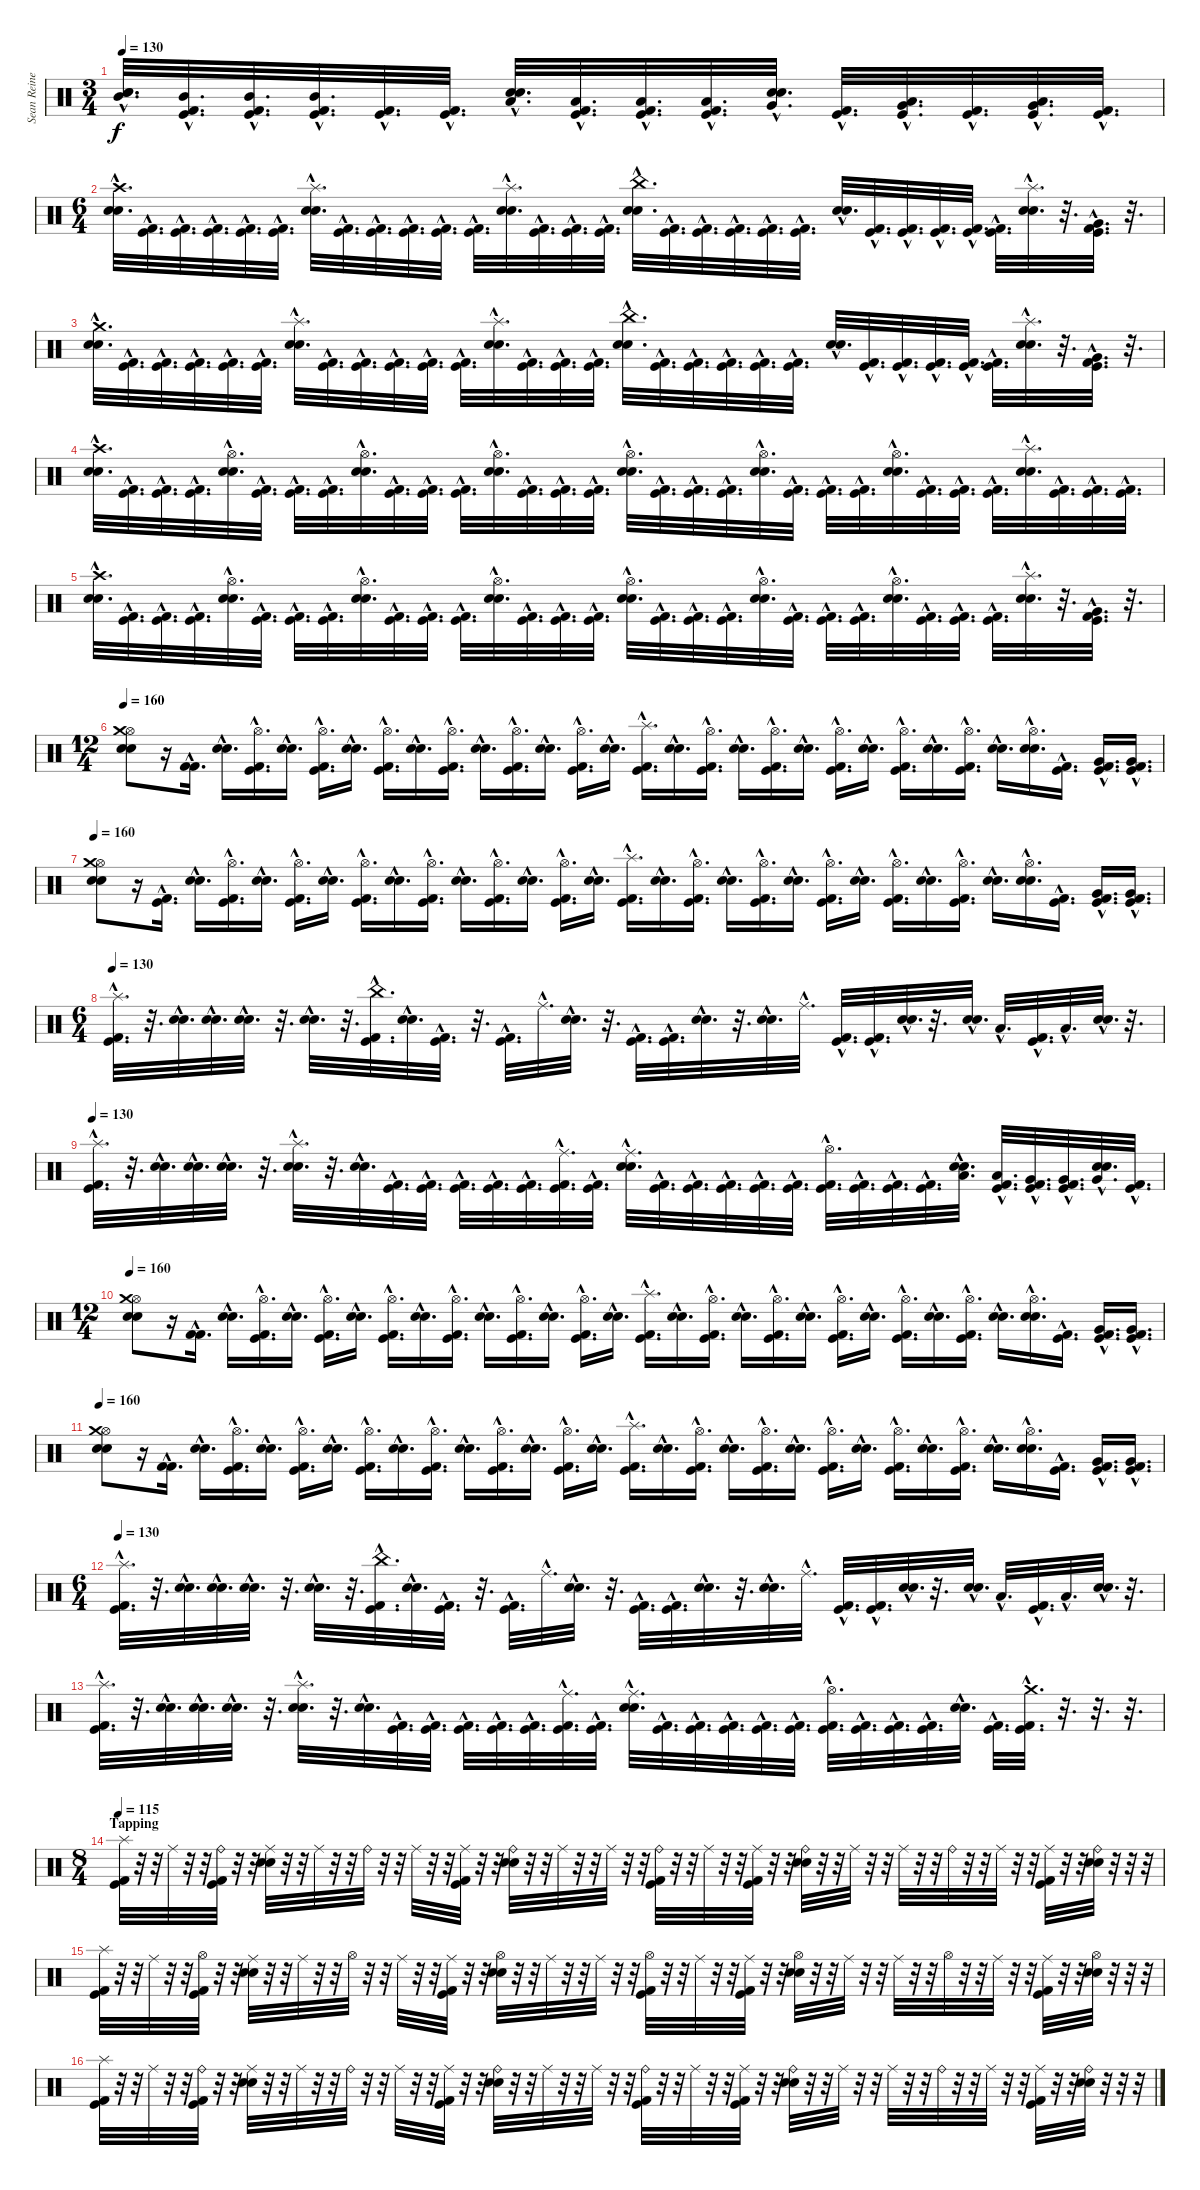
\track ("Sean Reinert" "Sean Reine") {instrument percussion}
\staff {score}
\articulation defaults
\ts (3 4)
\tempo 130
\clef neutral
\ks c
("Mid Tom (hit)"{hac} "Electric Snare (hit)"{hac} "Snare (hit) 2"{hac}).32{d dy f} ("Mid Tom (hit)"{hac} "Kick (hit) 2"{hac} "Kick (hit)"{hac}).32{d} ("Mid Tom (hit)"{hac} "Kick (hit)"{hac} "Kick (hit) 2"{hac}).32{d} ("Mid Tom (hit)"{hac} "Kick (hit) 2"{hac} "Kick (hit)"{hac}).32{d} ("Kick (hit) 2"{hac} "Kick (hit)"{hac}).32{d} ("Kick (hit) 2"{hac} "Kick (hit)"{hac}).32{d} ("Low Tom (hit)"{hac} "Electric Snare (hit)"{hac} "Snare (hit) 2"{hac}).32{d} ("Low Tom (hit)"{hac} "Kick (hit) 2"{hac} "Kick (hit)"{hac}).32{d} ("Low Tom (hit)"{hac} "Kick (hit) 2"{hac} "Kick (hit)"{hac}).32{d} ("Low Tom (hit)"{hac} "Kick (hit) 2"{hac} "Kick (hit)"{hac}).32{d} ("Very Low Tom (hit)"{hac} "Electric Snare (hit)"{hac} "Snare (hit) 2"{hac}).32{d} ("Kick (hit) 2"{hac} "Kick (hit)"{hac}).32{d} ("Low Floor Tom (hit)"{hac} "Very Low Tom (hit)"{hac} "Kick (hit)"{hac}).32{d} ("Kick (hit) 2"{hac} "Kick (hit)"{hac}).32{d} ("Low Floor Tom (hit)"{hac} "Very Low Tom (hit)"{hac} "Kick (hit)"{hac}).32{d} ("Kick (hit) 2"{hac} "Kick (hit)"{hac}).32{d} |
\ts (6 4)
("Crash high (hit)"{hac} "Snare (hit) 2"{hac} "Electric Snare (hit)"{hac}).32{d} ("Kick (hit) 2"{hac} "Kick (hit)"{hac}).32{d} ("Kick (hit) 2"{hac} "Kick (hit)"{hac}).32{d} ("Kick (hit) 2"{hac} "Kick (hit)"{hac}).32{d} ("Kick (hit) 2"{hac} "Kick (hit)"{hac}).32{d} ("Kick (hit) 2"{hac} "Kick (hit)"{hac}).32{d} ("Splash (hit)"{hac} "Snare (hit) 2"{hac} "Electric Snare (hit)"{hac}).32{d} ("Kick (hit) 2"{hac} "Kick (hit)"{hac}).32{d} ("Kick (hit) 2"{hac} "Kick (hit)"{hac}).32{d} ("Kick (hit) 2"{hac} "Kick (hit)"{hac}).32{d} ("Kick (hit) 2"{hac} "Kick (hit)"{hac}).32{d} ("Kick (hit) 2"{hac} "Kick (hit)"{hac}).32{d} ("Splash (hit)"{hac} "Snare (hit) 2"{hac} "Electric Snare (hit)"{hac}).32{d} ("Kick (hit) 2"{hac} "Kick (hit)"{hac}).32{d} ("Kick (hit) 2"{hac} "Kick (hit)"{hac}).32{d} ("Kick (hit) 2"{hac} "Kick (hit)"{hac}).32{d} ("China (hit)"{hac} "Snare (hit) 2"{hac} "Electric Snare (hit)"{hac}).32{d} ("Kick (hit) 2"{hac} "Kick (hit)"{hac}).32{d} ("Kick (hit) 2"{hac} "Kick (hit)"{hac}).32{d} ("Kick (hit) 2"{hac} "Kick (hit)"{hac}).32{d} ("Kick (hit) 2"{hac} "Kick (hit)"{hac}).32{d} ("Kick (hit) 2"{hac} "Kick (hit)"{hac}).32{d} ("Snare (hit) 2"{hac} "Electric Snare (hit)"{hac}).32{d} ("Kick (hit) 2"{hac} "Kick (hit)"{hac}).32{d} ("Kick (hit) 2"{hac} "Kick (hit)"{hac}).32{d} ("Kick (hit) 2"{hac} "Kick (hit)"{hac}).32{d} ("Kick (hit) 2"{hac} "Kick (hit)"{hac}).32{d} ("Kick (hit) 2"{hac} "Kick (hit)"{hac}).32{d} ("Splash (hit)"{hac} "Snare (hit) 2"{hac} "Electric Snare (hit)"{hac}).32{d} r.32{d} ("Very Low Tom (hit)"{hac} "Kick (hit) 2"{hac} "Kick (hit)"{hac}).32{d} r.32{d} |
("Crash medium (hit)"{hac} "Snare (hit) 2"{hac} "Electric Snare (hit)"{hac}).32{d} ("Kick (hit) 2"{hac} "Kick (hit)"{hac}).32{d} ("Kick (hit) 2"{hac} "Kick (hit)"{hac}).32{d} ("Kick (hit) 2"{hac} "Kick (hit)"{hac}).32{d} ("Kick (hit) 2"{hac} "Kick (hit)"{hac}).32{d} ("Kick (hit) 2"{hac} "Kick (hit)"{hac}).32{d} ("Splash (hit)"{hac} "Snare (hit) 2"{hac} "Electric Snare (hit)"{hac}).32{d} ("Kick (hit) 2"{hac} "Kick (hit)"{hac}).32{d} ("Kick (hit) 2"{hac} "Kick (hit)"{hac}).32{d} ("Kick (hit) 2"{hac} "Kick (hit)"{hac}).32{d} ("Kick (hit) 2"{hac} "Kick (hit)"{hac}).32{d} ("Kick (hit) 2"{hac} "Kick (hit)"{hac}).32{d} ("Splash (hit)"{hac} "Snare (hit) 2"{hac} "Electric Snare (hit)"{hac}).32{d} ("Kick (hit) 2"{hac} "Kick (hit)"{hac}).32{d} ("Kick (hit) 2"{hac} "Kick (hit)"{hac}).32{d} ("Kick (hit) 2"{hac} "Kick (hit)"{hac}).32{d} ("China (hit)"{hac} "Snare (hit) 2"{hac} "Electric Snare (hit)"{hac}).32{d} ("Kick (hit) 2"{hac} "Kick (hit)"{hac}).32{d} ("Kick (hit) 2"{hac} "Kick (hit)"{hac}).32{d} ("Kick (hit) 2"{hac} "Kick (hit)"{hac}).32{d} ("Kick (hit) 2"{hac} "Kick (hit)"{hac}).32{d} ("Kick (hit) 2"{hac} "Kick (hit)"{hac}).32{d} ("Snare (hit) 2"{hac} "Electric Snare (hit)"{hac}).32{d} ("Kick (hit) 2"{hac} "Kick (hit)"{hac}).32{d} ("Kick (hit) 2"{hac} "Kick (hit)"{hac}).32{d} ("Kick (hit) 2"{hac} "Kick (hit)"{hac}).32{d} ("Kick (hit) 2"{hac} "Kick (hit)"{hac}).32{d} ("Kick (hit) 2"{hac} "Kick (hit)"{hac}).32{d} ("Splash (hit)"{hac} "Snare (hit) 2"{hac} "Electric Snare (hit)"{hac}).32{d} r.32{d} ("Very Low Tom (hit)"{hac} "Kick (hit) 2"{hac} "Kick (hit)"{hac}).32{d} r.32{d} |
("Crash high (hit)"{hac} "Snare (hit) 2"{hac} "Electric Snare (hit)"{hac}).32{d} ("Kick (hit) 2"{hac} "Kick (hit)"{hac}).32{d} ("Kick (hit) 2"{hac} "Kick (hit)"{hac}).32{d} ("Kick (hit) 2"{hac} "Kick (hit)"{hac}).32{d} ("Hi-Hat (open)"{hac} "Snare (hit) 2"{hac} "Electric Snare (hit)"{hac}).32{d} ("Kick (hit) 2"{hac} "Kick (hit)"{hac}).32{d} ("Kick (hit) 2"{hac} "Kick (hit)"{hac}).32{d} ("Kick (hit) 2"{hac} "Kick (hit)"{hac}).32{d} ("Hi-Hat (open)"{hac} "Snare (hit) 2"{hac} "Electric Snare (hit)"{hac}).32{d} ("Kick (hit) 2"{hac} "Kick (hit)"{hac}).32{d} ("Kick (hit) 2"{hac} "Kick (hit)"{hac}).32{d} ("Kick (hit) 2"{hac} "Kick (hit)"{hac}).32{d} ("Hi-Hat (open)"{hac} "Snare (hit) 2"{hac} "Electric Snare (hit)"{hac}).32{d} ("Kick (hit) 2"{hac} "Kick (hit)"{hac}).32{d} ("Kick (hit) 2"{hac} "Kick (hit)"{hac}).32{d} ("Kick (hit) 2"{hac} "Kick (hit)"{hac}).32{d} ("Hi-Hat (open)"{hac} "Snare (hit) 2"{hac} "Electric Snare (hit)"{hac}).32{d} ("Kick (hit) 2"{hac} "Kick (hit)"{hac}).32{d} ("Kick (hit) 2"{hac} "Kick (hit)"{hac}).32{d} ("Kick (hit) 2"{hac} "Kick (hit)"{hac}).32{d} ("Hi-Hat (open)"{hac} "Snare (hit) 2"{hac} "Electric Snare (hit)"{hac}).32{d} ("Kick (hit) 2"{hac} "Kick (hit)"{hac}).32{d} ("Kick (hit) 2"{hac} "Kick (hit)"{hac}).32{d} ("Kick (hit) 2"{hac} "Kick (hit)"{hac}).32{d} ("Hi-Hat (open)"{hac} "Snare (hit) 2"{hac} "Electric Snare (hit)"{hac}).32{d} ("Kick (hit) 2"{hac} "Kick (hit)"{hac}).32{d} ("Kick (hit) 2"{hac} "Kick (hit)"{hac}).32{d} ("Kick (hit) 2"{hac} "Kick (hit)"{hac}).32{d} ("Splash (hit)"{hac} "Snare (hit) 2"{hac} "Electric Snare (hit)"{hac}).32{d} ("Kick (hit) 2"{hac} "Kick (hit)"{hac}).32{d} ("Kick (hit) 2"{hac} "Kick (hit)"{hac}).32{d} ("Kick (hit) 2"{hac} "Kick (hit)"{hac}).32{d} |
("Crash high (hit)"{hac} "Snare (hit) 2"{hac} "Electric Snare (hit)"{hac}).32{d} ("Kick (hit) 2"{hac} "Kick (hit)"{hac}).32{d} ("Kick (hit) 2"{hac} "Kick (hit)"{hac}).32{d} ("Kick (hit) 2"{hac} "Kick (hit)"{hac}).32{d} ("Hi-Hat (open)"{hac} "Snare (hit) 2"{hac} "Electric Snare (hit)"{hac}).32{d} ("Kick (hit) 2"{hac} "Kick (hit)"{hac}).32{d} ("Kick (hit) 2"{hac} "Kick (hit)"{hac}).32{d} ("Kick (hit) 2"{hac} "Kick (hit)"{hac}).32{d} ("Hi-Hat (open)"{hac} "Snare (hit) 2"{hac} "Electric Snare (hit)"{hac}).32{d} ("Kick (hit) 2"{hac} "Kick (hit)"{hac}).32{d} ("Kick (hit) 2"{hac} "Kick (hit)"{hac}).32{d} ("Kick (hit) 2"{hac} "Kick (hit)"{hac}).32{d} ("Hi-Hat (open)"{hac} "Snare (hit) 2"{hac} "Electric Snare (hit)"{hac}).32{d} ("Kick (hit) 2"{hac} "Kick (hit)"{hac}).32{d} ("Kick (hit) 2"{hac} "Kick (hit)"{hac}).32{d} ("Kick (hit) 2"{hac} "Kick (hit)"{hac}).32{d} ("Hi-Hat (open)"{hac} "Snare (hit) 2"{hac} "Electric Snare (hit)"{hac}).32{d} ("Kick (hit) 2"{hac} "Kick (hit)"{hac}).32{d} ("Kick (hit) 2"{hac} "Kick (hit)"{hac}).32{d} ("Kick (hit) 2"{hac} "Kick (hit)"{hac}).32{d} ("Hi-Hat (open)"{hac} "Snare (hit) 2"{hac} "Electric Snare (hit)"{hac}).32{d} ("Kick (hit) 2"{hac} "Kick (hit)"{hac}).32{d} ("Kick (hit) 2"{hac} "Kick (hit)"{hac}).32{d} ("Kick (hit) 2"{hac} "Kick (hit)"{hac}).32{d} ("Hi-Hat (open)"{hac} "Snare (hit) 2"{hac} "Electric Snare (hit)"{hac}).32{d} ("Kick (hit) 2"{hac} "Kick (hit)"{hac}).32{d} ("Kick (hit) 2"{hac} "Kick (hit)"{hac}).32{d} ("Kick (hit) 2"{hac} "Kick (hit)"{hac}).32{d} ("Splash (hit)"{hac} "Snare (hit) 2"{hac} "Electric Snare (hit)"{hac}).32{d} r.32{d} ("Very Low Tom (hit)"{hac} "Kick (hit) 2"{hac} "Kick (hit)"{hac}).32{d} r.32{d} |
\ts (12 4)
\tempo 160
("Hi-Hat (open)" "Crash medium (hit)" "Snare (hit) 2" "Electric Snare (hit)").8 r.16 ("Kick (hit) 2"{hac} "Kick (hit) 2"{hac}).16{d} ("Snare (hit) 2"{hac} "Electric Snare (hit)"{hac}).16{d} ("Hi-Hat (open)"{hac} "Kick (hit) 2"{hac} "Kick (hit)"{hac}).16{d} ("Snare (hit) 2"{hac} "Electric Snare (hit)"{hac}).16{d} ("Hi-Hat (open)"{hac} "Kick (hit) 2"{hac} "Kick (hit)"{hac}).16{d} ("Snare (hit) 2"{hac} "Electric Snare (hit)"{hac}).16{d} ("Hi-Hat (open)"{hac} "Kick (hit) 2"{hac} "Kick (hit)"{hac}).16{d} ("Snare (hit) 2"{hac} "Electric Snare (hit)"{hac}).16{d} ("Hi-Hat (open)"{hac} "Kick (hit) 2"{hac} "Kick (hit)"{hac}).16{d} ("Snare (hit) 2"{hac} "Electric Snare (hit)"{hac}).16{d} ("Hi-Hat (open)"{hac} "Kick (hit) 2"{hac} "Kick (hit)"{hac}).16{d} ("Snare (hit) 2"{hac} "Electric Snare (hit)"{hac}).16{d} ("Hi-Hat (open)"{hac} "Kick (hit) 2"{hac} "Kick (hit)"{hac}).16{d} ("Snare (hit) 2"{hac} "Electric Snare (hit)"{hac}).16{d} ("Splash (hit)"{hac} "Kick (hit) 2"{hac} "Kick (hit)"{hac}).16{d} ("Snare (hit) 2"{hac} "Electric Snare (hit)"{hac}).16{d} ("Hi-Hat (open)"{hac} "Kick (hit) 2"{hac} "Kick (hit)"{hac}).16{d} ("Snare (hit) 2"{hac} "Electric Snare (hit)"{hac}).16{d} ("Hi-Hat (open)"{hac} "Kick (hit) 2"{hac} "Kick (hit)"{hac}).16{d} ("Snare (hit) 2"{hac} "Electric Snare (hit)"{hac}).16{d} ("Hi-Hat (open)"{hac} "Kick (hit) 2"{hac} "Kick (hit)"{hac}).16{d} ("Snare (hit) 2"{hac} "Electric Snare (hit)"{hac}).16{d} ("Hi-Hat (open)"{hac} "Kick (hit) 2"{hac} "Kick (hit)"{hac}).16{d} ("Snare (hit) 2"{hac} "Electric Snare (hit)"{hac}).16{d} ("Hi-Hat (open)"{hac} "Kick (hit) 2"{hac} "Kick (hit)"{hac}).16{d} ("Snare (hit) 2"{hac} "Electric Snare (hit)"{hac}).16{d} ("Hi-Hat (open)"{hac} "Snare (hit) 2"{hac} "Electric Snare (hit)"{hac}).16{d} ("Kick (hit) 2"{hac} "Kick (hit)"{hac}).16{d} ("Very Low Tom (hit)"{hac} "Kick (hit) 2"{hac} "Kick (hit)"{hac}).16{d} ("Very Low Tom (hit)"{hac} "Kick (hit) 2"{hac} "Kick (hit)"{hac}).16{d} |
\tempo 160
("Hi-Hat (open)" "Crash medium (hit)" "Snare (hit) 2" "Electric Snare (hit)").8 r.16 ("Kick (hit) 2"{hac} "Kick (hit)"{hac}).16{d} ("Snare (hit) 2"{hac} "Electric Snare (hit)"{hac}).16{d} ("Hi-Hat (open)"{hac} "Kick (hit) 2"{hac} "Kick (hit)"{hac}).16{d} ("Snare (hit) 2"{hac} "Electric Snare (hit)"{hac}).16{d} ("Hi-Hat (open)"{hac} "Kick (hit) 2"{hac} "Kick (hit)"{hac}).16{d} ("Snare (hit) 2"{hac} "Electric Snare (hit)"{hac}).16{d} ("Hi-Hat (open)"{hac} "Kick (hit) 2"{hac} "Kick (hit)"{hac}).16{d} ("Snare (hit) 2"{hac} "Electric Snare (hit)"{hac}).16{d} ("Hi-Hat (open)"{hac} "Kick (hit) 2"{hac} "Kick (hit)"{hac}).16{d} ("Snare (hit) 2"{hac} "Electric Snare (hit)"{hac}).16{d} ("Hi-Hat (open)"{hac} "Kick (hit) 2"{hac} "Kick (hit)"{hac}).16{d} ("Snare (hit) 2"{hac} "Electric Snare (hit)"{hac}).16{d} ("Hi-Hat (open)"{hac} "Kick (hit) 2"{hac} "Kick (hit)"{hac}).16{d} ("Snare (hit) 2"{hac} "Electric Snare (hit)"{hac}).16{d} ("Splash (hit)"{hac} "Kick (hit) 2"{hac} "Kick (hit)"{hac}).16{d} ("Snare (hit) 2"{hac} "Electric Snare (hit)"{hac}).16{d} ("Hi-Hat (open)"{hac} "Kick (hit) 2"{hac} "Kick (hit)"{hac}).16{d} ("Snare (hit) 2"{hac} "Electric Snare (hit)"{hac}).16{d} ("Hi-Hat (open)"{hac} "Kick (hit) 2"{hac} "Kick (hit)"{hac}).16{d} ("Snare (hit) 2"{hac} "Electric Snare (hit)"{hac}).16{d} ("Hi-Hat (open)"{hac} "Kick (hit) 2"{hac} "Kick (hit)"{hac}).16{d} ("Snare (hit) 2"{hac} "Electric Snare (hit)"{hac}).16{d} ("Hi-Hat (open)"{hac} "Kick (hit) 2"{hac} "Kick (hit)"{hac}).16{d} ("Snare (hit) 2"{hac} "Electric Snare (hit)"{hac}).16{d} ("Hi-Hat (open)"{hac} "Kick (hit) 2"{hac} "Kick (hit)"{hac}).16{d} ("Snare (hit) 2"{hac} "Electric Snare (hit)"{hac}).16{d} ("Hi-Hat (open)"{hac} "Snare (hit) 2"{hac} "Electric Snare (hit)"{hac}).16{d} ("Kick (hit) 2"{hac} "Kick (hit)"{hac}).16{d} ("Very Low Tom (hit)"{hac} "Kick (hit) 2"{hac} "Kick (hit)"{hac}).16{d} ("Very Low Tom (hit)"{hac} "Kick (hit) 2"{hac} "Kick (hit)"{hac}).16{d} |
\ts (6 4)
\tempo 130
("Splash (hit)"{hac} "Kick (hit) 2"{hac} "Kick (hit)"{hac}).32{d} r.32{d} ("Snare (hit) 2"{hac} "Electric Snare (hit)"{hac}).32{d} ("Snare (hit) 2"{hac} "Electric Snare (hit)"{hac}).32{d} ("Snare (hit) 2"{hac} "Electric Snare (hit)"{hac}).32{d} r.32{d} ("Snare (hit) 2"{hac} "Electric Snare (hit)"{hac}).32{d} r.32{d} ("China (hit)"{hac} "Kick (hit) 2"{hac} "Kick (hit)"{hac}).32{d} ("Snare (hit) 2"{hac} "Electric Snare (hit)"{hac}).32{d} ("Kick (hit) 2"{hac} "Kick (hit)"{hac}).32{d} r.32{d} ("Kick (hit) 2"{hac} "Kick (hit)"{hac}).32{d} "Ride (middle)"{hac}.32{d} ("Snare (hit) 2"{hac} "Electric Snare (hit)"{hac}).32{d} r.32{d} ("Kick (hit) 2"{hac} "Kick (hit)"{hac}).32{d} ("Kick (hit) 2"{hac} "Kick (hit)"{hac}).32{d} ("Snare (hit) 2"{hac} "Electric Snare (hit)"{hac}).32{d} r.32{d} ("Snare (hit) 2"{hac} "Electric Snare (hit)"{hac}).32{d} "Ride (middle)"{hac}.32{d} ("Kick (hit) 2"{hac} "Kick (hit)"{hac}).32{d} ("Kick (hit) 2"{hac} "Kick (hit)"{hac}).32{d} ("Snare (hit) 2"{hac} "Electric Snare (hit)"{hac}).32{d} r.32{d} ("Snare (hit) 2"{hac} "Electric Snare (hit)"{hac}).32{d} "Low Tom (hit)"{hac}.32{d} ("Kick (hit) 2"{hac} "Kick (hit)"{hac}).32{d} "Low Tom (hit)"{hac}.32{d} ("Snare (hit) 2"{hac} "Electric Snare (hit)"{hac}).32{d} r.32{d} |
\tempo 130
("Splash (hit)"{hac} "Kick (hit) 2"{hac} "Kick (hit)"{hac}).32{d} r.32{d} ("Snare (hit) 2"{hac} "Electric Snare (hit)"{hac}).32{d} ("Snare (hit) 2"{hac} "Electric Snare (hit)"{hac}).32{d} ("Snare (hit) 2"{hac} "Electric Snare (hit)"{hac}).32{d} r.32{d} ("Splash (hit)"{hac} "Snare (hit) 2"{hac} "Electric Snare (hit)"{hac}).32{d} r.32{d} ("Electric Snare (hit)"{hac} "Snare (hit) 2"{hac}).32{d} ("Kick (hit) 2"{hac} "Kick (hit)"{hac}).32{d} ("Kick (hit) 2"{hac} "Kick (hit)"{hac}).32{d} ("Kick (hit) 2"{hac} "Kick (hit)"{hac}).32{d} ("Kick (hit) 2"{hac} "Kick (hit)"{hac}).32{d} ("Kick (hit) 2"{hac} "Kick (hit)"{hac}).32{d} ("Ride (middle)"{hac} "Kick (hit) 2"{hac} "Kick (hit)"{hac}).32{d} ("Kick (hit) 2"{hac} "Kick (hit)"{hac}).32{d} ("Ride (middle)"{hac} "Electric Snare (hit)"{hac} "Snare (hit) 2"{hac}).32{d} ("Kick (hit) 2"{hac} "Kick (hit)"{hac}).32{d} ("Kick (hit) 2"{hac} "Kick (hit)"{hac}).32{d} ("Kick (hit) 2"{hac} "Kick (hit)"{hac}).32{d} ("Kick (hit) 2"{hac} "Kick (hit)"{hac}).32{d} ("Kick (hit) 2"{hac} "Kick (hit)"{hac}).32{d} ("Hi-Hat (open)"{hac} "Kick (hit) 2"{hac} "Kick (hit)"{hac}).32{d} ("Kick (hit) 2"{hac} "Kick (hit)"{hac}).32{d} ("Kick (hit) 2"{hac} "Kick (hit)"{hac}).32{d} ("Kick (hit) 2"{hac} "Kick (hit)"{hac}).32{d} ("Low Tom (hit)"{hac} "Snare (hit) 2"{hac} "Electric Snare (hit)"{hac}).32{d} ("Low Tom (hit)"{hac} "Kick (hit) 2"{hac} "Kick (hit)"{hac}).32{d} ("Very Low Tom (hit)"{hac} "Kick (hit) 2"{hac} "Kick (hit)"{hac}).32{d} ("Very Low Tom (hit)"{hac} "Kick (hit) 2"{hac} "Kick (hit)"{hac}).32{d} ("Very Low Tom (hit)"{hac} "Snare (hit) 2"{hac} "Electric Snare (hit)"{hac}).32{d} ("Kick (hit) 2"{hac} "Kick (hit)"{hac}).32{d} |
\ts (12 4)
\tempo 160
("Hi-Hat (open)" "Crash medium (hit)" "Snare (hit) 2" "Electric Snare (hit)").8 r.16 ("Kick (hit) 2"{hac} "Kick (hit) 2"{hac}).16{d} ("Snare (hit) 2"{hac} "Electric Snare (hit)"{hac}).16{d} ("Hi-Hat (open)"{hac} "Kick (hit) 2"{hac} "Kick (hit)"{hac}).16{d} ("Snare (hit) 2"{hac} "Electric Snare (hit)"{hac}).16{d} ("Hi-Hat (open)"{hac} "Kick (hit) 2"{hac} "Kick (hit)"{hac}).16{d} ("Snare (hit) 2"{hac} "Electric Snare (hit)"{hac}).16{d} ("Hi-Hat (open)"{hac} "Kick (hit) 2"{hac} "Kick (hit)"{hac}).16{d} ("Snare (hit) 2"{hac} "Electric Snare (hit)"{hac}).16{d} ("Hi-Hat (open)"{hac} "Kick (hit) 2"{hac} "Kick (hit)"{hac}).16{d} ("Snare (hit) 2"{hac} "Electric Snare (hit)"{hac}).16{d} ("Hi-Hat (open)"{hac} "Kick (hit) 2"{hac} "Kick (hit)"{hac}).16{d} ("Snare (hit) 2"{hac} "Electric Snare (hit)"{hac}).16{d} ("Hi-Hat (open)"{hac} "Kick (hit) 2"{hac} "Kick (hit)"{hac}).16{d} ("Snare (hit) 2"{hac} "Electric Snare (hit)"{hac}).16{d} ("Splash (hit)"{hac} "Kick (hit) 2"{hac} "Kick (hit)"{hac}).16{d} ("Snare (hit) 2"{hac} "Electric Snare (hit)"{hac}).16{d} ("Hi-Hat (open)"{hac} "Kick (hit) 2"{hac} "Kick (hit)"{hac}).16{d} ("Snare (hit) 2"{hac} "Electric Snare (hit)"{hac}).16{d} ("Hi-Hat (open)"{hac} "Kick (hit) 2"{hac} "Kick (hit)"{hac}).16{d} ("Snare (hit) 2"{hac} "Electric Snare (hit)"{hac}).16{d} ("Hi-Hat (open)"{hac} "Kick (hit) 2"{hac} "Kick (hit)"{hac}).16{d} ("Snare (hit) 2"{hac} "Electric Snare (hit)"{hac}).16{d} ("Hi-Hat (open)"{hac} "Kick (hit) 2"{hac} "Kick (hit)"{hac}).16{d} ("Snare (hit) 2"{hac} "Electric Snare (hit)"{hac}).16{d} ("Hi-Hat (open)"{hac} "Kick (hit) 2"{hac} "Kick (hit)"{hac}).16{d} ("Snare (hit) 2"{hac} "Electric Snare (hit)"{hac}).16{d} ("Hi-Hat (open)"{hac} "Snare (hit) 2"{hac} "Electric Snare (hit)"{hac}).16{d} ("Kick (hit) 2"{hac} "Kick (hit)"{hac}).16{d} ("Very Low Tom (hit)"{hac} "Kick (hit) 2"{hac} "Kick (hit)"{hac}).16{d} ("Very Low Tom (hit)"{hac} "Kick (hit) 2"{hac} "Kick (hit)"{hac}).16{d} |
\tempo 160
("Hi-Hat (open)" "Crash medium (hit)" "Snare (hit) 2" "Electric Snare (hit)").8 r.16 ("Kick (hit) 2"{hac} "Kick (hit) 2"{hac}).16{d} ("Snare (hit) 2"{hac} "Electric Snare (hit)"{hac}).16{d} ("Hi-Hat (open)"{hac} "Kick (hit) 2"{hac} "Kick (hit)"{hac}).16{d} ("Snare (hit) 2"{hac} "Electric Snare (hit)"{hac}).16{d} ("Hi-Hat (open)"{hac} "Kick (hit) 2"{hac} "Kick (hit)"{hac}).16{d} ("Snare (hit) 2"{hac} "Electric Snare (hit)"{hac}).16{d} ("Hi-Hat (open)"{hac} "Kick (hit) 2"{hac} "Kick (hit)"{hac}).16{d} ("Snare (hit) 2"{hac} "Electric Snare (hit)"{hac}).16{d} ("Hi-Hat (open)"{hac} "Kick (hit) 2"{hac} "Kick (hit)"{hac}).16{d} ("Snare (hit) 2"{hac} "Electric Snare (hit)"{hac}).16{d} ("Hi-Hat (open)"{hac} "Kick (hit) 2"{hac} "Kick (hit)"{hac}).16{d} ("Snare (hit) 2"{hac} "Electric Snare (hit)"{hac}).16{d} ("Hi-Hat (open)"{hac} "Kick (hit) 2"{hac} "Kick (hit)"{hac}).16{d} ("Snare (hit) 2"{hac} "Electric Snare (hit)"{hac}).16{d} ("Splash (hit)"{hac} "Kick (hit) 2"{hac} "Kick (hit)"{hac}).16{d} ("Snare (hit) 2"{hac} "Electric Snare (hit)"{hac}).16{d} ("Hi-Hat (open)"{hac} "Kick (hit) 2"{hac} "Kick (hit)"{hac}).16{d} ("Snare (hit) 2"{hac} "Electric Snare (hit)"{hac}).16{d} ("Hi-Hat (open)"{hac} "Kick (hit) 2"{hac} "Kick (hit)"{hac}).16{d} ("Snare (hit) 2"{hac} "Electric Snare (hit)"{hac}).16{d} ("Hi-Hat (open)"{hac} "Kick (hit) 2"{hac} "Kick (hit)"{hac}).16{d} ("Snare (hit) 2"{hac} "Electric Snare (hit)"{hac}).16{d} ("Hi-Hat (open)"{hac} "Kick (hit) 2"{hac} "Kick (hit)"{hac}).16{d} ("Snare (hit) 2"{hac} "Electric Snare (hit)"{hac}).16{d} ("Hi-Hat (open)"{hac} "Kick (hit) 2"{hac} "Kick (hit)"{hac}).16{d} ("Snare (hit) 2"{hac} "Electric Snare (hit)"{hac}).16{d} ("Hi-Hat (open)"{hac} "Snare (hit) 2"{hac} "Electric Snare (hit)"{hac}).16{d} ("Kick (hit) 2"{hac} "Kick (hit)"{hac}).16{d} ("Very Low Tom (hit)"{hac} "Kick (hit) 2"{hac} "Kick (hit)"{hac}).16{d} ("Very Low Tom (hit)"{hac} "Kick (hit) 2"{hac} "Kick (hit)"{hac}).16{d} |
\ts (6 4)
\tempo 130
("Splash (hit)"{hac} "Kick (hit) 2"{hac} "Kick (hit)"{hac}).32{d} r.32{d} ("Snare (hit) 2"{hac} "Electric Snare (hit)"{hac}).32{d} ("Snare (hit) 2"{hac} "Electric Snare (hit)"{hac}).32{d} ("Snare (hit) 2"{hac} "Electric Snare (hit)"{hac}).32{d} r.32{d} ("Snare (hit) 2"{hac} "Electric Snare (hit)"{hac}).32{d} r.32{d} ("China (hit)"{hac} "Kick (hit) 2"{hac} "Kick (hit)"{hac}).32{d} ("Snare (hit) 2"{hac} "Electric Snare (hit)"{hac}).32{d} ("Kick (hit) 2"{hac} "Kick (hit)"{hac}).32{d} r.32{d} ("Kick (hit) 2"{hac} "Kick (hit)"{hac}).32{d} "Ride (middle)"{hac}.32{d} ("Snare (hit) 2"{hac} "Electric Snare (hit)"{hac}).32{d} r.32{d} ("Kick (hit) 2"{hac} "Kick (hit)"{hac}).32{d} ("Kick (hit) 2"{hac} "Kick (hit)"{hac}).32{d} ("Snare (hit) 2"{hac} "Electric Snare (hit)"{hac}).32{d} r.32{d} ("Snare (hit) 2"{hac} "Electric Snare (hit)"{hac}).32{d} "Ride (middle)"{hac}.32{d} ("Kick (hit) 2"{hac} "Kick (hit)"{hac}).32{d} ("Kick (hit) 2"{hac} "Kick (hit)"{hac}).32{d} ("Snare (hit) 2"{hac} "Electric Snare (hit)"{hac}).32{d} r.32{d} ("Snare (hit) 2"{hac} "Electric Snare (hit)"{hac}).32{d} "Low Tom (hit)"{hac}.32{d} ("Kick (hit) 2"{hac} "Kick (hit)"{hac}).32{d} "Low Tom (hit)"{hac}.32{d} ("Snare (hit) 2"{hac} "Electric Snare (hit)"{hac}).32{d} r.32{d} |
("Splash (hit)"{hac} "Kick (hit) 2"{hac} "Kick (hit)"{hac}).32{d} r.32{d} ("Snare (hit) 2"{hac} "Electric Snare (hit)"{hac}).32{d} ("Snare (hit) 2"{hac} "Electric Snare (hit)"{hac}).32{d} ("Snare (hit) 2"{hac} "Electric Snare (hit)"{hac}).32{d} r.32{d} ("Splash (hit)"{hac} "Snare (hit) 2"{hac} "Electric Snare (hit)"{hac}).32{d} r.32{d} ("Electric Snare (hit)"{hac} "Snare (hit) 2"{hac}).32{d} ("Kick (hit) 2"{hac} "Kick (hit)"{hac}).32{d} ("Kick (hit) 2"{hac} "Kick (hit)"{hac}).32{d} ("Kick (hit) 2"{hac} "Kick (hit)"{hac}).32{d} ("Kick (hit) 2"{hac} "Kick (hit)"{hac}).32{d} ("Kick (hit) 2"{hac} "Kick (hit)"{hac}).32{d} ("Ride (middle)"{hac} "Kick (hit) 2"{hac} "Kick (hit)"{hac}).32{d} ("Kick (hit) 2"{hac} "Kick (hit)"{hac}).32{d} ("Ride (middle)"{hac} "Electric Snare (hit)"{hac} "Snare (hit) 2"{hac}).32{d} ("Kick (hit) 2"{hac} "Kick (hit)"{hac}).32{d} ("Kick (hit) 2"{hac} "Kick (hit)"{hac}).32{d} ("Kick (hit) 2"{hac} "Kick (hit)"{hac}).32{d} ("Kick (hit) 2"{hac} "Kick (hit)"{hac}).32{d} ("Kick (hit) 2"{hac} "Kick (hit)"{hac}).32{d} ("Hi-Hat (open)"{hac} "Kick (hit) 2"{hac} "Kick (hit)"{hac}).32{d} ("Kick (hit) 2"{hac} "Kick (hit)"{hac}).32{d} ("Kick (hit) 2"{hac} "Kick (hit)"{hac}).32{d} ("Kick (hit) 2"{hac} "Kick (hit)"{hac}).32{d} ("Snare (hit) 2"{hac} "Electric Snare (hit)"{hac}).32{d} ("Kick (hit)"{hac} "Kick (hit) 2"{hac}).32{d} ("Crash medium (hit)"{hac} "Kick (hit)"{hac} "Kick (hit) 2"{hac}).32{d} r.32{d} r.32{d} r.32{d} |
\ts (8 4)
\section ("" "Tapping")
\tempo 115
("Splash (hit)" "Kick (hit) 2" "Kick (hit)").32 r.32 r.32 "Ride (middle)".32 r.32 r.32 ("Ride (bell)" "Kick (hit) 2" "Kick (hit)").32 r.32 r.32 ("Ride (middle)" "Electric Snare (hit)" "Snare (hit) 2").32 r.32 r.32 "Ride (middle)".32 r.32 r.32 "Ride (bell)".32 r.32 r.32 "Ride (middle)".32 r.32 r.32 ("Ride (middle)" "Kick (hit) 2" "Kick (hit)").32 r.32 r.32 ("Ride (bell)" "Electric Snare (hit)" "Snare (hit) 2").32 r.32 r.32 "Ride (middle)".32 r.32 r.32 "Ride (middle)".32 r.32 r.32 ("Ride (bell)" "Kick (hit) 2" "Kick (hit)").32 r.32 r.32 "Ride (middle)".32 r.32 r.32 ("Ride (middle)" "Kick (hit) 2" "Kick (hit)").32 r.32 r.32 ("Ride (bell)" "Electric Snare (hit)" "Snare (hit) 2").32 r.32 r.32 "Ride (middle)".32 r.32 r.32 "Ride (middle)".32 r.32 r.32 "Ride (bell)".32 r.32 r.32 "Ride (middle)".32 r.32 r.32 ("Ride (middle)" "Kick (hit) 2" "Kick (hit)").32 r.32 r.32 ("Ride (bell)" "Electric Snare (hit)" "Snare (hit) 2").32 r.32 r.32 r.32 |
("Splash (hit)" "Kick (hit) 2" "Kick (hit)").32 r.32 r.32 "Ride (middle)".32 r.32 r.32 ("Hi-Hat (open)" "Kick (hit) 2" "Kick (hit)").32 r.32 r.32 ("Ride (middle)" "Electric Snare (hit)" "Snare (hit) 2").32 r.32 r.32 "Ride (middle)".32 r.32 r.32 "Hi-Hat (open)".32 r.32 r.32 "Ride (middle)".32 r.32 r.32 ("Ride (middle)" "Kick (hit) 2" "Kick (hit)").32 r.32 r.32 ("Hi-Hat (open)" "Electric Snare (hit)" "Snare (hit) 2").32 r.32 r.32 "Ride (middle)".32 r.32 r.32 "Ride (middle)".32 r.32 r.32 ("Hi-Hat (open)" "Kick (hit) 2" "Kick (hit)").32 r.32 r.32 "Ride (middle)".32 r.32 r.32 ("Ride (middle)" "Kick (hit) 2" "Kick (hit)").32 r.32 r.32 ("Hi-Hat (open)" "Electric Snare (hit)" "Snare (hit) 2").32 r.32 r.32 "Ride (middle)".32 r.32 r.32 "Ride (middle)".32 r.32 r.32 "Hi-Hat (open)".32 r.32 r.32 "Ride (middle)".32 r.32 r.32 ("Ride (middle)" "Kick (hit) 2" "Kick (hit)").32 r.32 r.32 ("Hi-Hat (open)" "Electric Snare (hit)" "Snare (hit) 2").32 r.32 r.32 r.32 |
("Splash (hit)" "Kick (hit) 2" "Kick (hit)").32 r.32 r.32 "Ride (middle)".32 r.32 r.32 ("Ride (bell)" "Kick (hit) 2" "Kick (hit)").32 r.32 r.32 ("Ride (middle)" "Electric Snare (hit)" "Snare (hit) 2").32 r.32 r.32 "Ride (middle)".32 r.32 r.32 "Ride (bell)".32 r.32 r.32 "Ride (middle)".32 r.32 r.32 ("Ride (middle)" "Kick (hit) 2" "Kick (hit)").32 r.32 r.32 ("Ride (bell)" "Electric Snare (hit)" "Snare (hit) 2").32 r.32 r.32 "Ride (middle)".32 r.32 r.32 "Ride (middle)".32 r.32 r.32 ("Ride (bell)" "Kick (hit) 2" "Kick (hit)").32 r.32 r.32 "Ride (middle)".32 r.32 r.32 ("Ride (middle)" "Kick (hit) 2" "Kick (hit)").32 r.32 r.32 ("Ride (bell)" "Electric Snare (hit)" "Snare (hit) 2").32 r.32 r.32 "Ride (middle)".32 r.32 r.32 "Ride (middle)".32 r.32 r.32 "Ride (bell)".32 r.32 r.32 "Ride (middle)".32 r.32 r.32 ("Ride (middle)" "Kick (hit) 2" "Kick (hit)").32 r.32 r.32 ("Ride (bell)" "Snare (hit) 2" "Electric Snare (hit)").32 r.32 r.32 r.32
